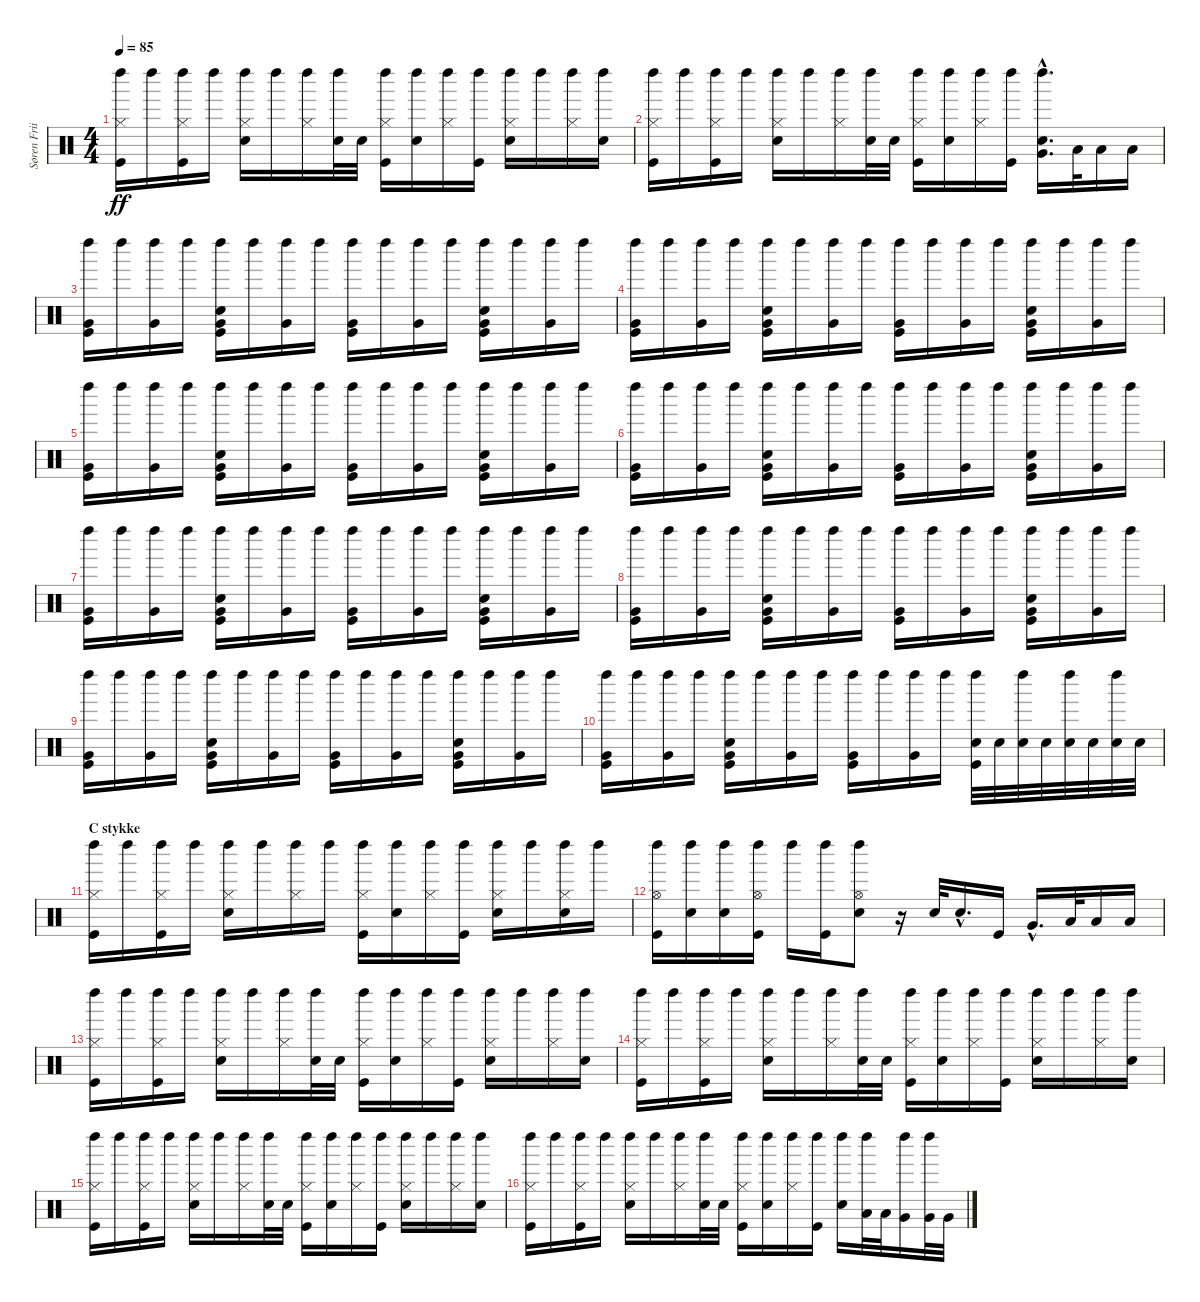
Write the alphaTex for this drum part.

\track ("Søren Friis (Drums)" "Søren Frii") {instrument percussion}
\staff {score}
\articulation defaults
\ts (4 4)
\tempo 85
\clef neutral
\ks c
("Kick (hit)" "Hi-Hat (closed)" "Left Maraca (hit)").16{dy ff} "Left Maraca (hit)".16 ("Kick (hit)" "Hi-Hat (closed)" "Left Maraca (hit)").16 "Left Maraca (hit)".16 ("Snare (hit) 2" "Hi-Hat (closed)" "Left Maraca (hit)").16 "Left Maraca (hit)".16 ("Hi-Hat (closed)" "Left Maraca (hit)").16 ("Snare (hit) 2" "Left Maraca (hit)").32 "Snare (hit) 2".32 ("Kick (hit)" "Hi-Hat (closed)" "Left Maraca (hit)").16 ("Snare (hit) 2" "Left Maraca (hit)").16 ("Hi-Hat (closed)" "Left Maraca (hit)").16 ("Kick (hit)" "Left Maraca (hit)").16 ("Snare (hit) 2" "Hi-Hat (closed)" "Left Maraca (hit)").16 "Left Maraca (hit)".16 ("Hi-Hat (closed)" "Left Maraca (hit)").16 ("Snare (hit) 2" "Left Maraca (hit)").16 |
("Kick (hit)" "Hi-Hat (closed)" "Left Maraca (hit)").16 "Left Maraca (hit)".16 ("Kick (hit)" "Hi-Hat (closed)" "Left Maraca (hit)").16 "Left Maraca (hit)".16 ("Snare (hit) 2" "Hi-Hat (closed)" "Left Maraca (hit)").16 "Left Maraca (hit)".16 ("Hi-Hat (closed)" "Left Maraca (hit)").16 ("Snare (hit) 2" "Left Maraca (hit)").32 "Snare (hit) 2".32 ("Kick (hit)" "Hi-Hat (closed)" "Left Maraca (hit)").16 ("Snare (hit) 2" "Left Maraca (hit)").16 ("Hi-Hat (closed)" "Left Maraca (hit)").16 ("Kick (hit)" "Left Maraca (hit)").16 ("Snare (hit) 2"{hac} "Very Low Tom (hit)"{hac} "Left Maraca (hit)"{hac}).16{d} "Low Tom (hit)".32 "Low Tom (hit)".16 "Low Tom (hit)".16 |
("Kick (hit)" "Very Low Tom (hit)" "Left Maraca (hit)").16 "Left Maraca (hit)".16 ("Very Low Tom (hit)" "Left Maraca (hit)").16 "Left Maraca (hit)".16 ("Kick (hit)" "Snare (hit) 2" "Very Low Tom (hit)" "Left Maraca (hit)").16 "Left Maraca (hit)".16 ("Very Low Tom (hit)" "Left Maraca (hit)").16 "Left Maraca (hit)".16 ("Kick (hit)" "Very Low Tom (hit)" "Left Maraca (hit)").16 "Left Maraca (hit)".16 ("Very Low Tom (hit)" "Left Maraca (hit)").16 "Left Maraca (hit)".16 ("Kick (hit)" "Snare (hit) 2" "Very Low Tom (hit)" "Left Maraca (hit)").16 "Left Maraca (hit)".16 ("Very Low Tom (hit)" "Left Maraca (hit)").16 "Left Maraca (hit)".16 |
("Kick (hit)" "Very Low Tom (hit)" "Left Maraca (hit)").16 "Left Maraca (hit)".16 ("Very Low Tom (hit)" "Left Maraca (hit)").16 "Left Maraca (hit)".16 ("Kick (hit)" "Snare (hit) 2" "Very Low Tom (hit)" "Left Maraca (hit)").16 "Left Maraca (hit)".16 ("Very Low Tom (hit)" "Left Maraca (hit)").16 "Left Maraca (hit)".16 ("Kick (hit)" "Very Low Tom (hit)" "Left Maraca (hit)").16 "Left Maraca (hit)".16 ("Very Low Tom (hit)" "Left Maraca (hit)").16 "Left Maraca (hit)".16 ("Kick (hit)" "Snare (hit) 2" "Very Low Tom (hit)" "Left Maraca (hit)").16 "Left Maraca (hit)".16 ("Very Low Tom (hit)" "Left Maraca (hit)").16 "Left Maraca (hit)".16 |
("Kick (hit)" "Very Low Tom (hit)" "Left Maraca (hit)").16 "Left Maraca (hit)".16 ("Very Low Tom (hit)" "Left Maraca (hit)").16 "Left Maraca (hit)".16 ("Kick (hit)" "Snare (hit) 2" "Very Low Tom (hit)" "Left Maraca (hit)").16 "Left Maraca (hit)".16 ("Very Low Tom (hit)" "Left Maraca (hit)").16 "Left Maraca (hit)".16 ("Kick (hit)" "Very Low Tom (hit)" "Left Maraca (hit)").16 "Left Maraca (hit)".16 ("Very Low Tom (hit)" "Left Maraca (hit)").16 "Left Maraca (hit)".16 ("Kick (hit)" "Snare (hit) 2" "Very Low Tom (hit)" "Left Maraca (hit)").16 "Left Maraca (hit)".16 ("Very Low Tom (hit)" "Left Maraca (hit)").16 "Left Maraca (hit)".16 |
("Kick (hit)" "Very Low Tom (hit)" "Left Maraca (hit)").16 "Left Maraca (hit)".16 ("Very Low Tom (hit)" "Left Maraca (hit)").16 "Left Maraca (hit)".16 ("Kick (hit)" "Snare (hit) 2" "Very Low Tom (hit)" "Left Maraca (hit)").16 "Left Maraca (hit)".16 ("Very Low Tom (hit)" "Left Maraca (hit)").16 "Left Maraca (hit)".16 ("Kick (hit)" "Very Low Tom (hit)" "Left Maraca (hit)").16 "Left Maraca (hit)".16 ("Very Low Tom (hit)" "Left Maraca (hit)").16 "Left Maraca (hit)".16 ("Kick (hit)" "Snare (hit) 2" "Very Low Tom (hit)" "Left Maraca (hit)").16 "Left Maraca (hit)".16 ("Very Low Tom (hit)" "Left Maraca (hit)").16 "Left Maraca (hit)".16 |
("Kick (hit)" "Very Low Tom (hit)" "Left Maraca (hit)").16 "Left Maraca (hit)".16 ("Very Low Tom (hit)" "Left Maraca (hit)").16 "Left Maraca (hit)".16 ("Kick (hit)" "Snare (hit) 2" "Very Low Tom (hit)" "Left Maraca (hit)").16 "Left Maraca (hit)".16 ("Very Low Tom (hit)" "Left Maraca (hit)").16 "Left Maraca (hit)".16 ("Kick (hit)" "Very Low Tom (hit)" "Left Maraca (hit)").16 "Left Maraca (hit)".16 ("Very Low Tom (hit)" "Left Maraca (hit)").16 "Left Maraca (hit)".16 ("Kick (hit)" "Snare (hit) 2" "Very Low Tom (hit)" "Left Maraca (hit)").16 "Left Maraca (hit)".16 ("Very Low Tom (hit)" "Left Maraca (hit)").16 "Left Maraca (hit)".16 |
("Kick (hit)" "Very Low Tom (hit)" "Left Maraca (hit)").16 "Left Maraca (hit)".16 ("Very Low Tom (hit)" "Left Maraca (hit)").16 "Left Maraca (hit)".16 ("Kick (hit)" "Snare (hit) 2" "Very Low Tom (hit)" "Left Maraca (hit)").16 "Left Maraca (hit)".16 ("Very Low Tom (hit)" "Left Maraca (hit)").16 "Left Maraca (hit)".16 ("Kick (hit)" "Very Low Tom (hit)" "Left Maraca (hit)").16 "Left Maraca (hit)".16 ("Very Low Tom (hit)" "Left Maraca (hit)").16 "Left Maraca (hit)".16 ("Kick (hit)" "Snare (hit) 2" "Very Low Tom (hit)" "Left Maraca (hit)").16 "Left Maraca (hit)".16 ("Very Low Tom (hit)" "Left Maraca (hit)").16 "Left Maraca (hit)".16 |
("Kick (hit)" "Very Low Tom (hit)" "Left Maraca (hit)").16 "Left Maraca (hit)".16 ("Very Low Tom (hit)" "Left Maraca (hit)").16 "Left Maraca (hit)".16 ("Kick (hit)" "Snare (hit) 2" "Very Low Tom (hit)" "Left Maraca (hit)").16 "Left Maraca (hit)".16 ("Very Low Tom (hit)" "Left Maraca (hit)").16 "Left Maraca (hit)".16 ("Kick (hit)" "Very Low Tom (hit)" "Left Maraca (hit)").16 "Left Maraca (hit)".16 ("Very Low Tom (hit)" "Left Maraca (hit)").16 "Left Maraca (hit)".16 ("Kick (hit)" "Snare (hit) 2" "Very Low Tom (hit)" "Left Maraca (hit)").16 "Left Maraca (hit)".16 ("Very Low Tom (hit)" "Left Maraca (hit)").16 "Left Maraca (hit)".16 |
("Kick (hit)" "Very Low Tom (hit)" "Left Maraca (hit)").16 "Left Maraca (hit)".16 ("Very Low Tom (hit)" "Left Maraca (hit)").16 "Left Maraca (hit)".16 ("Kick (hit)" "Snare (hit) 2" "Very Low Tom (hit)" "Left Maraca (hit)").16 "Left Maraca (hit)".16 ("Very Low Tom (hit)" "Left Maraca (hit)").16 "Left Maraca (hit)".16 ("Kick (hit)" "Very Low Tom (hit)" "Left Maraca (hit)").16 "Left Maraca (hit)".16 ("Very Low Tom (hit)" "Left Maraca (hit)").16 "Left Maraca (hit)".16 ("Kick (hit)" "Snare (hit) 2" "Left Maraca (hit)").32 "Snare (hit) 2".32 ("Snare (hit) 2" "Left Maraca (hit)").32 "Snare (hit) 2".32 ("Snare (hit) 2" "Left Maraca (hit)").32 "Snare (hit) 2".32 ("Snare (hit) 2" "Left Maraca (hit)").32 "Snare (hit) 2".32 |
\section ("" "C stykke")
("Kick (hit)" "Hi-Hat (closed)" "Left Maraca (hit)").16 "Left Maraca (hit)".16 ("Kick (hit)" "Hi-Hat (closed)" "Left Maraca (hit)").16 "Left Maraca (hit)".16 ("Snare (hit) 2" "Hi-Hat (closed)" "Left Maraca (hit)").16 "Left Maraca (hit)".16 ("Hi-Hat (closed)" "Left Maraca (hit)").16 "Left Maraca (hit)".16 ("Kick (hit)" "Hi-Hat (closed)" "Left Maraca (hit)").16 ("Snare (hit) 2" "Left Maraca (hit)").16 ("Hi-Hat (closed)" "Left Maraca (hit)").16 ("Kick (hit)" "Left Maraca (hit)").16 ("Snare (hit) 2" "Hi-Hat (closed)" "Left Maraca (hit)").16 "Left Maraca (hit)".16 ("Snare (hit) 2" "Hi-Hat (closed)" "Left Maraca (hit)").16 "Left Maraca (hit)".16 |
("Kick (hit)" "Hi-Hat (open)" "Left Maraca (hit)").16 ("Snare (hit) 2" "Left Maraca (hit)").16 ("Snare (hit) 2" "Left Maraca (hit)").16 ("Kick (hit)" "Hi-Hat (open)" "Left Maraca (hit)").16 "Left Maraca (hit)".16 ("Kick (hit)" "Left Maraca (hit)").16 ("Snare (hit) 2" "Hi-Hat (open)" "Left Maraca (hit)").8 r.16 "Snare (hit) 2".32 "Snare (hit) 2"{hac}.16{d} "Kick (hit)".16 "Very Low Tom (hit)"{hac}.16{d} "Low Tom (hit)".32 "Low Tom (hit)".16 "Low Floor Tom (hit)".16 |
("Kick (hit)" "Hi-Hat (closed)" "Left Maraca (hit)").16 "Left Maraca (hit)".16 ("Kick (hit)" "Hi-Hat (closed)" "Left Maraca (hit)").16 "Left Maraca (hit)".16 ("Snare (hit) 2" "Hi-Hat (closed)" "Left Maraca (hit)").16 "Left Maraca (hit)".16 ("Hi-Hat (closed)" "Left Maraca (hit)").16 ("Snare (hit) 2" "Left Maraca (hit)").32 "Snare (hit) 2".32 ("Kick (hit)" "Hi-Hat (closed)" "Left Maraca (hit)").16 ("Snare (hit) 2" "Left Maraca (hit)").16 ("Hi-Hat (closed)" "Left Maraca (hit)").16 ("Kick (hit)" "Left Maraca (hit)").16 ("Snare (hit) 2" "Hi-Hat (closed)" "Left Maraca (hit)").16 "Left Maraca (hit)".16 ("Hi-Hat (closed)" "Left Maraca (hit)").16 ("Snare (hit) 2" "Left Maraca (hit)").16 |
("Kick (hit)" "Hi-Hat (closed)" "Left Maraca (hit)").16 "Left Maraca (hit)".16 ("Kick (hit)" "Hi-Hat (closed)" "Left Maraca (hit)").16 "Left Maraca (hit)".16 ("Snare (hit) 2" "Hi-Hat (closed)" "Left Maraca (hit)").16 "Left Maraca (hit)".16 ("Hi-Hat (closed)" "Left Maraca (hit)").16 ("Snare (hit) 2" "Left Maraca (hit)").32 "Snare (hit) 2".32 ("Kick (hit)" "Hi-Hat (closed)" "Left Maraca (hit)").16 ("Snare (hit) 2" "Left Maraca (hit)").16 ("Hi-Hat (closed)" "Left Maraca (hit)").16 ("Kick (hit)" "Left Maraca (hit)").16 ("Snare (hit) 2" "Hi-Hat (closed)" "Left Maraca (hit)").16 "Left Maraca (hit)".16 ("Hi-Hat (closed)" "Left Maraca (hit)").16 ("Snare (hit) 2" "Left Maraca (hit)").16 |
("Kick (hit)" "Hi-Hat (closed)" "Left Maraca (hit)").16 "Left Maraca (hit)".16 ("Kick (hit)" "Hi-Hat (closed)" "Left Maraca (hit)").16 "Left Maraca (hit)".16 ("Snare (hit) 2" "Hi-Hat (closed)" "Left Maraca (hit)").16 "Left Maraca (hit)".16 ("Hi-Hat (closed)" "Left Maraca (hit)").16 ("Snare (hit) 2" "Left Maraca (hit)").32 "Snare (hit) 2".32 ("Kick (hit)" "Hi-Hat (closed)" "Left Maraca (hit)").16 ("Snare (hit) 2" "Left Maraca (hit)").16 ("Hi-Hat (closed)" "Left Maraca (hit)").16 ("Kick (hit)" "Left Maraca (hit)").16 ("Snare (hit) 2" "Hi-Hat (closed)" "Left Maraca (hit)").16 "Left Maraca (hit)".16 ("Hi-Hat (closed)" "Left Maraca (hit)").16 ("Snare (hit) 2" "Left Maraca (hit)").16 |
("Kick (hit)" "Hi-Hat (closed)" "Left Maraca (hit)").16 "Left Maraca (hit)".16 ("Kick (hit)" "Hi-Hat (closed)" "Left Maraca (hit)").16 "Left Maraca (hit)".16 ("Snare (hit) 2" "Hi-Hat (closed)" "Left Maraca (hit)").16 "Left Maraca (hit)".16 ("Hi-Hat (closed)" "Left Maraca (hit)").16 ("Snare (hit) 2" "Left Maraca (hit)").32 "Snare (hit) 2".32 ("Kick (hit)" "Hi-Hat (closed)" "Left Maraca (hit)").16 ("Snare (hit) 2" "Left Maraca (hit)").16 ("Hi-Hat (closed)" "Left Maraca (hit)").16 ("Kick (hit)" "Left Maraca (hit)").16 ("Snare (hit) 2" "Left Maraca (hit)").16 ("Low Tom (hit)" "Left Maraca (hit)").32 "Low Tom (hit)".32 ("Very Low Tom (hit)" "Left Maraca (hit)").16 ("Very Low Tom (hit)" "Left Maraca (hit)").32 "Very Low Tom (hit)".32
